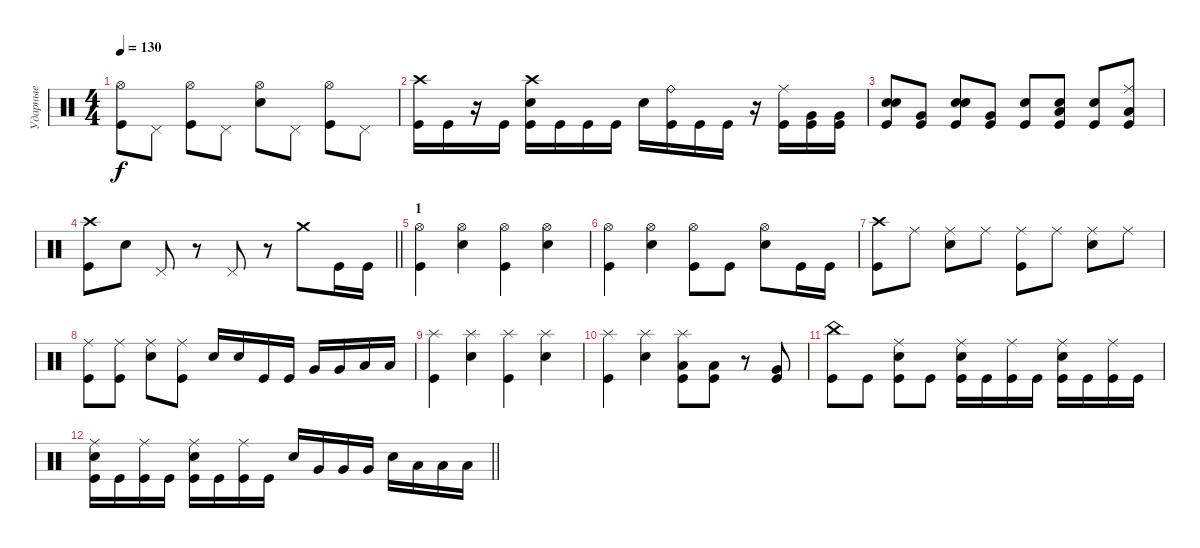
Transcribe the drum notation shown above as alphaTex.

\track ("Ударные" "Ударные") {instrument percussion}
\staff {score}
\articulation defaults
\ts (4 4)
\tempo 130
\clef neutral
\ks c
("Hi-Hat (open)" "Kick (hit)").8{dy f} "Pedal Hi-Hat (hit)".8 ("Hi-Hat (open)" "Kick (hit)").8 "Pedal Hi-Hat (hit)".8 ("Hi-Hat (open)" "Electric Snare (hit)").8 "Pedal Hi-Hat (hit)".8 ("Hi-Hat (open)" "Kick (hit)").8 "Pedal Hi-Hat (hit)".8 |
("Crash high (hit)" "Kick (hit)").16 "Kick (hit)".16 r.16 "Kick (hit)".16 ("Crash high (hit)" "Electric Snare (hit)" "Kick (hit)").16 "Kick (hit)".16 "Kick (hit)".16 "Kick (hit)".16 "Electric Snare (hit)".16 ("Ride (bell)" "Kick (hit)").16 "Kick (hit)".16 "Kick (hit)".16 r.16 ("Ride (middle)" "Kick (hit)").16 ("Very Low Tom (hit)" "Kick (hit)").16 ("Very Low Tom (hit)" "Kick (hit)").16 |
("Electric Snare (hit)" "Electric Snare (hit)" "Kick (hit)").8 ("Very Low Tom (hit)" "Kick (hit)").8 ("Electric Snare (hit)" "Electric Snare (hit)" "Kick (hit)").8 ("Very Low Tom (hit)" "Kick (hit)").8 ("Electric Snare (hit)" "Kick (hit)").8 ("Low Tom (hit)" "Electric Snare (hit)" "Kick (hit)").8 ("Electric Snare (hit)" "Kick (hit)").8 ("Ride (middle)" "Low Tom (hit)" "Kick (hit)").8 |
\barLineRight lightlight
("Crash high (hit)" "Kick (hit)").8 "Electric Snare (hit)".8 "Pedal Hi-Hat (hit)".8 r.8 "Pedal Hi-Hat (hit)".8 r.8 "Crash medium (hit)".8 "Kick (hit)".16 "Kick (hit)".16 |
\section ("" "1")
("Hi-Hat (open)" "Kick (hit)").4 ("Hi-Hat (open)" "Electric Snare (hit)").4 ("Hi-Hat (open)" "Kick (hit)").4 ("Hi-Hat (open)" "Electric Snare (hit)").4 |
("Hi-Hat (open)" "Kick (hit)").4 ("Hi-Hat (open)" "Electric Snare (hit)").4 ("Hi-Hat (open)" "Kick (hit)").8 "Kick (hit)".8 ("Hi-Hat (open)" "Electric Snare (hit)").8 "Kick (hit)".16 "Kick (hit)".16 |
("Crash high (hit)" "Kick (hit)").8 "Ride (middle)".8 ("Ride (middle)" "Electric Snare (hit)").8 "Ride (middle)".8 ("Ride (middle)" "Kick (hit)").8 "Ride (middle)".8 ("Ride (middle)" "Electric Snare (hit)").8 "Ride (middle)".8 |
("Ride (middle)" "Kick (hit)").8 ("Ride (middle)" "Kick (hit)").8 ("Ride (middle)" "Electric Snare (hit)").8 ("Ride (middle)" "Kick (hit)").8 "Electric Snare (hit)".16 "Electric Snare (hit)".16 "Kick (hit)".16 "Kick (hit)".16 "Very Low Tom (hit)".16 "Very Low Tom (hit)".16 "Low Floor Tom (hit)".16 "Low Floor Tom (hit)".16 |
("Splash (hit)" "Kick (hit)").4 ("Splash (hit)" "Electric Snare (hit)").4 ("Splash (hit)" "Kick (hit)").4 ("Splash (hit)" "Electric Snare (hit)").4 |
("Splash (hit)" "Kick (hit)").4 ("Splash (hit)" "Electric Snare (hit)").4 ("Splash (hit)" "Low Tom (hit)" "Kick (hit)").8 ("Low Tom (hit)" "Kick (hit)").8 r.8 ("Very Low Tom (hit)" "Kick (hit)").8 |
("China (hit)" "Kick (hit)").8 "Kick (hit)".8 ("Ride (middle)" "Electric Snare (hit)" "Kick (hit)").8 "Kick (hit)".8 ("Ride (middle)" "Electric Snare (hit)" "Kick (hit)").16 "Kick (hit)".16 ("Ride (middle)" "Kick (hit)").16 "Kick (hit)".16 ("Ride (middle)" "Electric Snare (hit)" "Kick (hit)").16 "Kick (hit)".16 ("Ride (middle)" "Kick (hit)").16 "Kick (hit)".16 |
\barLineRight lightlight
("Ride (middle)" "Electric Snare (hit)" "Kick (hit)").16 "Kick (hit)".16 ("Ride (middle)" "Kick (hit)").16 "Kick (hit)".16 ("Ride (middle)" "Electric Snare (hit)" "Kick (hit)").16 "Kick (hit)".16 ("Ride (middle)" "Kick (hit)").16 "Kick (hit)".16 "Electric Snare (hit)".16 "Very Low Tom (hit)".16 "Very Low Tom (hit)".16 "Very Low Tom (hit)".16 "Electric Snare (hit)".16 "Low Floor Tom (hit)".16 "Low Floor Tom (hit)".16 "Low Floor Tom (hit)".16
